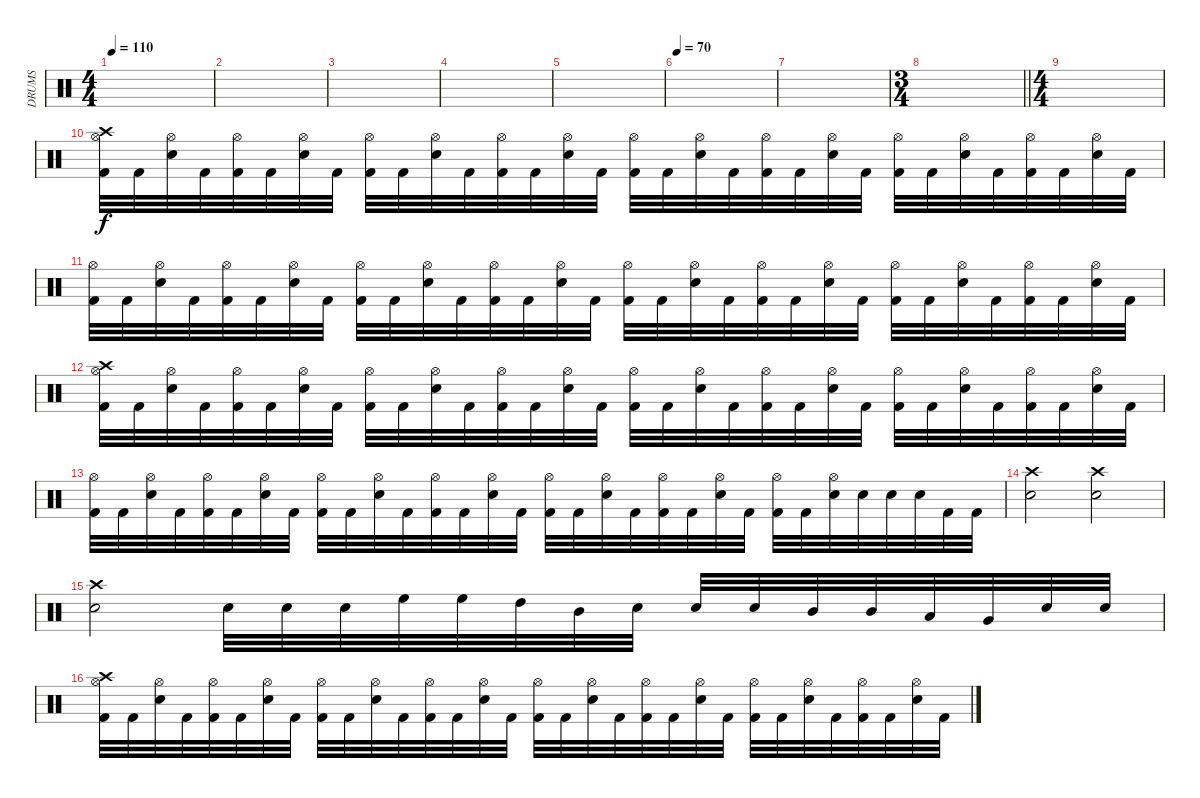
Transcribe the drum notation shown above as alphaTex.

\track ("DRUMS" "DRUMS") {instrument percussion}
\staff {score}
\articulation defaults
\ts (4 4)
\tempo 110
\clef neutral
\ks c
|
|
|
|
|
\tempo 70
|
|
\ts (3 4)
\barLineRight lightlight
|
\ts (4 4)
|
("Hi-Hat (open)" "Crash high (hit)" "Kick (hit) 2").32 "Kick (hit) 2".32 ("Hi-Hat (open)" "Snare (hit) 2").32 "Kick (hit) 2".32 ("Hi-Hat (open)" "Kick (hit) 2").32 "Kick (hit) 2".32 ("Hi-Hat (open)" "Snare (hit) 2").32 "Kick (hit) 2".32 ("Hi-Hat (open)" "Kick (hit) 2").32 "Kick (hit) 2".32 ("Hi-Hat (open)" "Snare (hit) 2").32 "Kick (hit) 2".32 ("Hi-Hat (open)" "Kick (hit) 2").32 "Kick (hit) 2".32 ("Hi-Hat (open)" "Snare (hit) 2").32 "Kick (hit) 2".32 ("Hi-Hat (open)" "Kick (hit) 2").32 "Kick (hit) 2".32 ("Hi-Hat (open)" "Snare (hit) 2").32 "Kick (hit) 2".32 ("Hi-Hat (open)" "Kick (hit) 2").32 "Kick (hit) 2".32 ("Hi-Hat (open)" "Snare (hit) 2").32 "Kick (hit) 2".32 ("Hi-Hat (open)" "Kick (hit) 2").32 "Kick (hit) 2".32 ("Hi-Hat (open)" "Snare (hit) 2").32 "Kick (hit) 2".32 ("Hi-Hat (open)" "Kick (hit) 2").32 "Kick (hit) 2".32 ("Hi-Hat (open)" "Snare (hit) 2").32 "Kick (hit) 2".32 |
("Hi-Hat (open)" "Kick (hit) 2").32 "Kick (hit) 2".32 ("Hi-Hat (open)" "Snare (hit) 2").32 "Kick (hit) 2".32 ("Hi-Hat (open)" "Kick (hit) 2").32 "Kick (hit) 2".32 ("Hi-Hat (open)" "Snare (hit) 2").32 "Kick (hit) 2".32 ("Hi-Hat (open)" "Kick (hit) 2").32 "Kick (hit) 2".32 ("Hi-Hat (open)" "Snare (hit) 2").32 "Kick (hit) 2".32 ("Hi-Hat (open)" "Kick (hit) 2").32 "Kick (hit) 2".32 ("Hi-Hat (open)" "Snare (hit) 2").32 "Kick (hit) 2".32 ("Hi-Hat (open)" "Kick (hit) 2").32 "Kick (hit) 2".32 ("Hi-Hat (open)" "Snare (hit) 2").32 "Kick (hit) 2".32 ("Hi-Hat (open)" "Kick (hit) 2").32 "Kick (hit) 2".32 ("Hi-Hat (open)" "Snare (hit) 2").32 "Kick (hit) 2".32 ("Hi-Hat (open)" "Kick (hit) 2").32 "Kick (hit) 2".32 ("Hi-Hat (open)" "Snare (hit) 2").32 "Kick (hit) 2".32 ("Hi-Hat (open)" "Kick (hit) 2").32 "Kick (hit) 2".32 ("Hi-Hat (open)" "Snare (hit) 2").32 "Kick (hit) 2".32 |
("Hi-Hat (open)" "Crash high (hit)" "Kick (hit) 2").32 "Kick (hit) 2".32 ("Hi-Hat (open)" "Snare (hit) 2").32 "Kick (hit) 2".32 ("Hi-Hat (open)" "Kick (hit) 2").32 "Kick (hit) 2".32 ("Hi-Hat (open)" "Snare (hit) 2").32 "Kick (hit) 2".32 ("Hi-Hat (open)" "Kick (hit) 2").32 "Kick (hit) 2".32 ("Hi-Hat (open)" "Snare (hit) 2").32 "Kick (hit) 2".32 ("Hi-Hat (open)" "Kick (hit) 2").32 "Kick (hit) 2".32 ("Hi-Hat (open)" "Snare (hit) 2").32 "Kick (hit) 2".32 ("Hi-Hat (open)" "Kick (hit) 2").32 "Kick (hit) 2".32 ("Hi-Hat (open)" "Snare (hit) 2").32 "Kick (hit) 2".32 ("Hi-Hat (open)" "Kick (hit) 2").32 "Kick (hit) 2".32 ("Hi-Hat (open)" "Snare (hit) 2").32 "Kick (hit) 2".32 ("Hi-Hat (open)" "Kick (hit) 2").32 "Kick (hit) 2".32 ("Hi-Hat (open)" "Snare (hit) 2").32 "Kick (hit) 2".32 ("Hi-Hat (open)" "Kick (hit) 2").32 "Kick (hit) 2".32 ("Hi-Hat (open)" "Snare (hit) 2").32 "Kick (hit) 2".32 |
("Hi-Hat (open)" "Kick (hit) 2").32 "Kick (hit) 2".32 ("Hi-Hat (open)" "Snare (hit) 2").32 "Kick (hit) 2".32 ("Hi-Hat (open)" "Kick (hit) 2").32 "Kick (hit) 2".32 ("Hi-Hat (open)" "Snare (hit) 2").32 "Kick (hit) 2".32 ("Hi-Hat (open)" "Kick (hit) 2").32 "Kick (hit) 2".32 ("Hi-Hat (open)" "Snare (hit) 2").32 "Kick (hit) 2".32 ("Hi-Hat (open)" "Kick (hit) 2").32 "Kick (hit) 2".32 ("Hi-Hat (open)" "Snare (hit) 2").32 "Kick (hit) 2".32 ("Hi-Hat (open)" "Kick (hit) 2").32 "Kick (hit) 2".32 ("Hi-Hat (open)" "Snare (hit) 2").32 "Kick (hit) 2".32 ("Hi-Hat (open)" "Kick (hit) 2").32 "Kick (hit) 2".32 ("Hi-Hat (open)" "Snare (hit) 2").32 "Kick (hit) 2".32 ("Hi-Hat (open)" "Kick (hit) 2").32 "Kick (hit) 2".32 ("Hi-Hat (open)" "Snare (hit) 2").32 "Snare (hit) 2".32 "Snare (hit) 2".32 "Snare (hit) 2".32 "Kick (hit) 2".32 "Kick (hit) 2".32 |
("Crash high (hit)" "Snare (hit) 2").2 ("Crash high (hit)" "Snare (hit) 2").2 |
("Crash high (hit)" "Snare (hit) 2").2 "Snare (hit) 2".32 "Snare (hit) 2".32 "Snare (hit) 2".32 "High Floor Tom (hit)".32 "High Floor Tom (hit)".32 "High Tom (hit)".32 "Mid Tom (hit)".32 "Snare (hit) 2".32 "Snare (hit) 2".32 "Snare (hit) 2".32 "Mid Tom (hit)".32 "Mid Tom (hit)".32 "Low Tom (hit)".32 "Very Low Tom (hit)".32 "Snare (hit) 2".32 "Snare (hit) 2".32 |
("Hi-Hat (open)" "Crash high (hit)" "Kick (hit) 2").32 "Kick (hit) 2".32 ("Hi-Hat (open)" "Snare (hit) 2").32 "Kick (hit) 2".32 ("Hi-Hat (open)" "Kick (hit) 2").32 "Kick (hit) 2".32 ("Hi-Hat (open)" "Snare (hit) 2").32 "Kick (hit) 2".32 ("Hi-Hat (open)" "Kick (hit) 2").32 "Kick (hit) 2".32 ("Hi-Hat (open)" "Snare (hit) 2").32 "Kick (hit) 2".32 ("Hi-Hat (open)" "Kick (hit) 2").32 "Kick (hit) 2".32 ("Hi-Hat (open)" "Snare (hit) 2").32 "Kick (hit) 2".32 ("Hi-Hat (open)" "Kick (hit) 2").32 "Kick (hit) 2".32 ("Hi-Hat (open)" "Snare (hit) 2").32 "Kick (hit) 2".32 ("Hi-Hat (open)" "Kick (hit) 2").32 "Kick (hit) 2".32 ("Hi-Hat (open)" "Snare (hit) 2").32 "Kick (hit) 2".32 ("Hi-Hat (open)" "Kick (hit) 2").32 "Kick (hit) 2".32 ("Hi-Hat (open)" "Snare (hit) 2").32 "Kick (hit) 2".32 ("Hi-Hat (open)" "Kick (hit) 2").32 "Kick (hit) 2".32 ("Hi-Hat (open)" "Snare (hit) 2").32 "Kick (hit) 2".32
